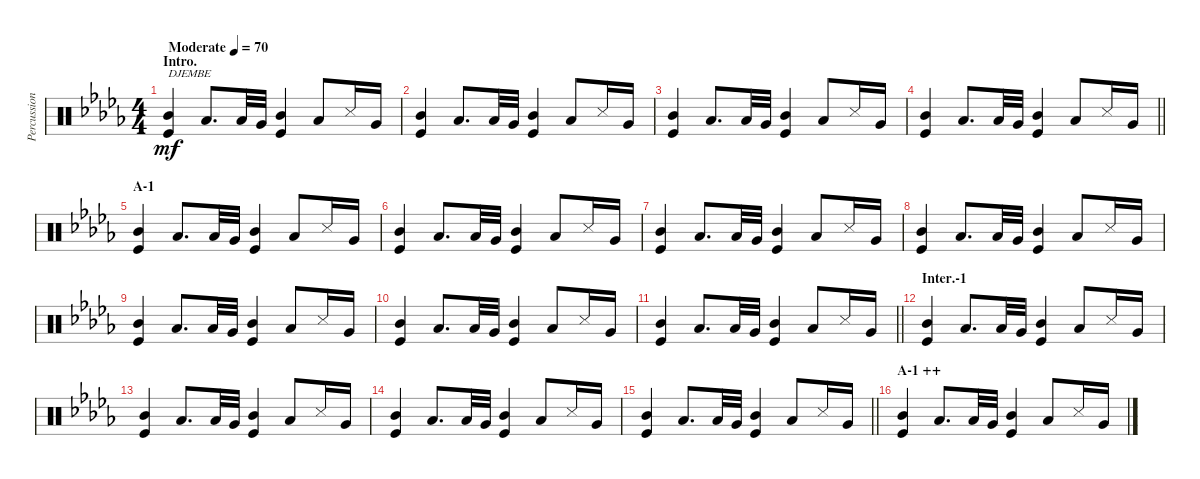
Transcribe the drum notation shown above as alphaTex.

\track ("Percussion (Tainaka Ritsu)" "Percussion") {instrument percussion}
\staff {score}
\articulation defaults
\ts (4 4)
\section ("" "Intro.")
\tempo (70 "Moderate")
\clef neutral
\ks db
("Mid Tom (hit)" "Kick (hit)").4{txt "DJEMBE" dy mf} "Low Tom (hit)".8{d} "Low Floor Tom (hit)".32 "Very Low Tom (hit)".32 ("Mid Tom (hit)" "Kick (hit)").4 "Low Tom (hit)".8 "Snare (side stick) 3".16 "Very Low Tom (hit)".16 |
("Mid Tom (hit)" "Kick (hit)").4 "Low Tom (hit)".8{d} "Low Floor Tom (hit)".32 "Very Low Tom (hit)".32 ("Mid Tom (hit)" "Kick (hit)").4 "Low Tom (hit)".8 "Snare (side stick) 3".16 "Very Low Tom (hit)".16 |
("Mid Tom (hit)" "Kick (hit)").4 "Low Tom (hit)".8{d} "Low Floor Tom (hit)".32 "Very Low Tom (hit)".32 ("Mid Tom (hit)" "Kick (hit)").4 "Low Tom (hit)".8 "Snare (side stick) 3".16 "Very Low Tom (hit)".16 |
\barLineRight lightlight
("Mid Tom (hit)" "Kick (hit)").4 "Low Tom (hit)".8{d} "Low Floor Tom (hit)".32 "Very Low Tom (hit)".32 ("Mid Tom (hit)" "Kick (hit)").4 "Low Tom (hit)".8 "Snare (side stick) 3".16 "Very Low Tom (hit)".16 |
\section ("" "A-1")
("Mid Tom (hit)" "Kick (hit)").4 "Low Tom (hit)".8{d} "Low Floor Tom (hit)".32 "Very Low Tom (hit)".32 ("Mid Tom (hit)" "Kick (hit)").4 "Low Tom (hit)".8 "Snare (side stick) 3".16 "Very Low Tom (hit)".16 |
("Mid Tom (hit)" "Kick (hit)").4 "Low Tom (hit)".8{d} "Low Floor Tom (hit)".32 "Very Low Tom (hit)".32 ("Mid Tom (hit)" "Kick (hit)").4 "Low Tom (hit)".8 "Snare (side stick) 3".16 "Very Low Tom (hit)".16 |
("Mid Tom (hit)" "Kick (hit)").4 "Low Tom (hit)".8{d} "Low Floor Tom (hit)".32 "Very Low Tom (hit)".32 ("Mid Tom (hit)" "Kick (hit)").4 "Low Tom (hit)".8 "Snare (side stick) 3".16 "Very Low Tom (hit)".16 |
("Mid Tom (hit)" "Kick (hit)").4 "Low Tom (hit)".8{d} "Low Floor Tom (hit)".32 "Very Low Tom (hit)".32 ("Mid Tom (hit)" "Kick (hit)").4 "Low Tom (hit)".8 "Snare (side stick) 3".16 "Very Low Tom (hit)".16 |
("Mid Tom (hit)" "Kick (hit)").4 "Low Tom (hit)".8{d} "Low Floor Tom (hit)".32 "Very Low Tom (hit)".32 ("Mid Tom (hit)" "Kick (hit)").4 "Low Tom (hit)".8 "Snare (side stick) 3".16 "Very Low Tom (hit)".16 |
("Mid Tom (hit)" "Kick (hit)").4 "Low Tom (hit)".8{d} "Low Floor Tom (hit)".32 "Very Low Tom (hit)".32 ("Mid Tom (hit)" "Kick (hit)").4 "Low Tom (hit)".8 "Snare (side stick) 3".16 "Very Low Tom (hit)".16 |
\barLineRight lightlight
("Mid Tom (hit)" "Kick (hit)").4 "Low Tom (hit)".8{d} "Low Floor Tom (hit)".32 "Very Low Tom (hit)".32 ("Mid Tom (hit)" "Kick (hit)").4 "Low Tom (hit)".8 "Snare (side stick) 3".16 "Very Low Tom (hit)".16 |
\section ("" "Inter.-1")
("Mid Tom (hit)" "Kick (hit)").4 "Low Tom (hit)".8{d} "Low Floor Tom (hit)".32 "Very Low Tom (hit)".32 ("Mid Tom (hit)" "Kick (hit)").4 "Low Tom (hit)".8 "Snare (side stick) 3".16 "Very Low Tom (hit)".16 |
("Mid Tom (hit)" "Kick (hit)").4 "Low Tom (hit)".8{d} "Low Floor Tom (hit)".32 "Very Low Tom (hit)".32 ("Mid Tom (hit)" "Kick (hit)").4 "Low Tom (hit)".8 "Snare (side stick) 3".16 "Very Low Tom (hit)".16 |
("Mid Tom (hit)" "Kick (hit)").4 "Low Tom (hit)".8{d} "Low Floor Tom (hit)".32 "Very Low Tom (hit)".32 ("Mid Tom (hit)" "Kick (hit)").4 "Low Tom (hit)".8 "Snare (side stick) 3".16 "Very Low Tom (hit)".16 |
\barLineRight lightlight
("Mid Tom (hit)" "Kick (hit)").4 "Low Tom (hit)".8{d} "Low Floor Tom (hit)".32 "Very Low Tom (hit)".32 ("Mid Tom (hit)" "Kick (hit)").4 "Low Tom (hit)".8 "Snare (side stick) 3".16 "Very Low Tom (hit)".16 |
\section ("" "A-1 ++")
("Mid Tom (hit)" "Kick (hit)").4 "Low Tom (hit)".8{d} "Low Floor Tom (hit)".32 "Very Low Tom (hit)".32 ("Mid Tom (hit)" "Kick (hit)").4 "Low Tom (hit)".8 "Snare (side stick) 3".16 "Very Low Tom (hit)".16
